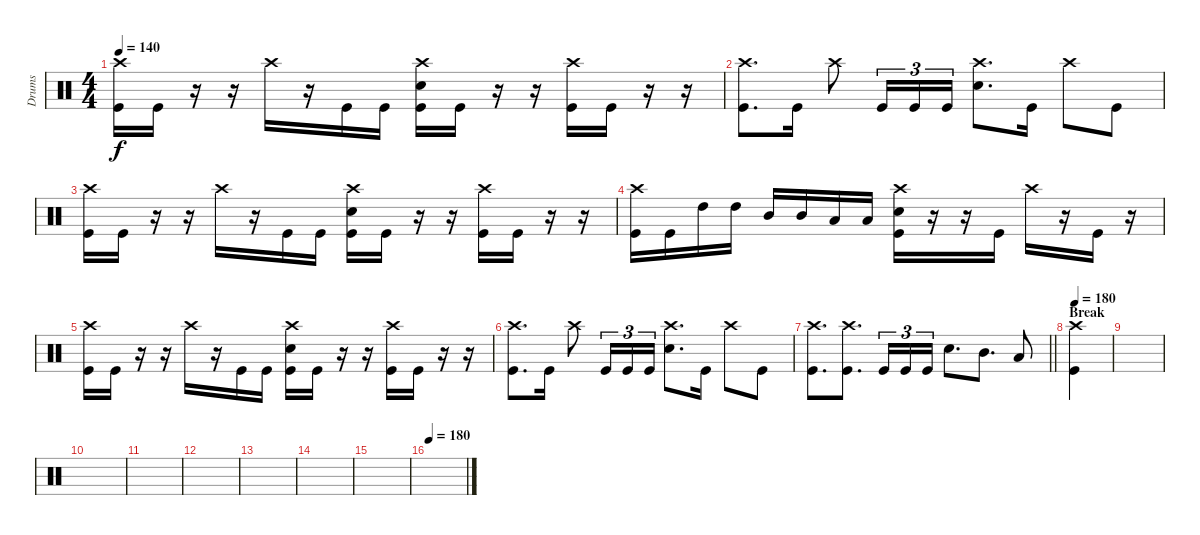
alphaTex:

\track ("Drums" "Drums") {instrument percussion}
\staff {score}
\articulation defaults
\ts (4 4)
\tempo 140
\clef neutral
\ks c
("Crash high (hit)" "Kick (hit)").16{dy f} "Kick (hit)".16 r.16 r.16 "Crash high (hit)".16 r.16 "Kick (hit)".16 "Kick (hit)".16 ("Snare (hit) 2" "Crash high (hit)" "Kick (hit)").16 "Kick (hit)".16 r.16 r.16 ("Crash high (hit)" "Kick (hit)").16 "Kick (hit)".16 r.16 r.16 |
("Crash high (hit)" "Kick (hit)").8{d} "Kick (hit)".16 "Crash high (hit)".8 "Kick (hit)".16{tu (3 2)} "Kick (hit)".16{tu (3 2)} "Kick (hit)".16{tu (3 2)} ("Crash high (hit)" "Snare (hit) 2").8{d} "Kick (hit)".16 "Crash high (hit)".8 "Kick (hit)".8 |
("Crash high (hit)" "Kick (hit)").16 "Kick (hit)".16 r.16 r.16 "Crash high (hit)".16 r.16 "Kick (hit)".16 "Kick (hit)".16 ("Snare (hit) 2" "Crash high (hit)" "Kick (hit)").16 "Kick (hit)".16 r.16 r.16 ("Crash high (hit)" "Kick (hit)").16 "Kick (hit)".16 r.16 r.16 |
("Crash high (hit)" "Kick (hit)").16 "Kick (hit)".16 "High Tom (hit)".16 "High Tom (hit)".16 "Mid Tom (hit)".16 "Mid Tom (hit)".16 "Low Tom (hit)".16 "Low Tom (hit)".16 ("Snare (hit) 2" "Crash high (hit)" "Kick (hit)").16 r.16 r.16 "Kick (hit)".16 "Crash high (hit)".16 r.16 "Kick (hit)".16 r.16 |
("Crash high (hit)" "Kick (hit)").16 "Kick (hit)".16 r.16 r.16 "Crash high (hit)".16 r.16 "Kick (hit)".16 "Kick (hit)".16 ("Snare (hit) 2" "Crash high (hit)" "Kick (hit)").16 "Kick (hit)".16 r.16 r.16 ("Crash high (hit)" "Kick (hit)").16 "Kick (hit)".16 r.16 r.16 |
("Crash high (hit)" "Kick (hit)").8{d} "Kick (hit)".16 "Crash high (hit)".8 "Kick (hit)".16{tu (3 2)} "Kick (hit)".16{tu (3 2)} "Kick (hit)".16{tu (3 2)} ("Crash high (hit)" "Snare (hit) 2").8{d} "Kick (hit)".16 "Crash high (hit)".8 "Kick (hit)".8 |
\barLineRight lightlight
("Crash high (hit)" "Kick (hit)").8{d} ("Crash high (hit)" "Kick (hit)").8{d} "Kick (hit)".16{tu (3 2)} "Kick (hit)".16{tu (3 2)} "Kick (hit)".16{tu (3 2)} "Snare (hit) 2".8{d} "Mid Tom (hit)".8{d} "Low Tom (hit)".8 |
\section ("" "Break")
\tempo 180
("Crash high (hit)" "Kick (hit)").4 |
|
|
|
|
|
|
|
\tempo 180
